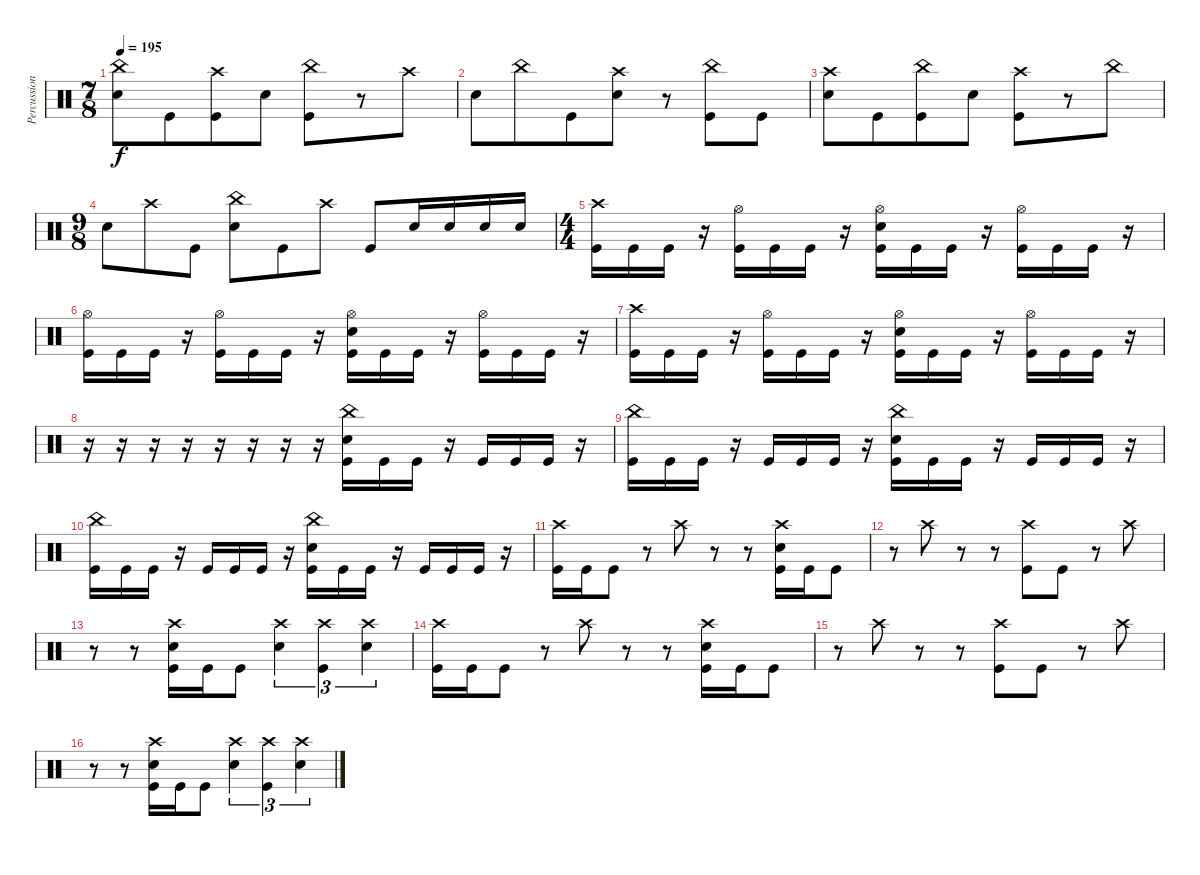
\track ("Percussion" "Percussion") {instrument percussion}
\staff {score}
\articulation defaults
\ts (7 8)
\tempo 195
\clef neutral
\ks c
("China (hit)" "Electric Snare (hit)").8{dy f} "Kick (hit)".8 ("Crash high (hit)" "Kick (hit)").8 "Electric Snare (hit)".8 ("China (hit)" "Kick (hit)").8 r.8 "Crash high (hit)".8 |
"Electric Snare (hit)".8 "China (hit)".8 "Kick (hit)".8 ("Crash high (hit)" "Electric Snare (hit)").8 r.8 ("China (hit)" "Kick (hit)").8 "Kick (hit)".8 |
("Crash high (hit)" "Electric Snare (hit)").8 "Kick (hit)".8 ("China (hit)" "Kick (hit)").8 "Electric Snare (hit)".8 ("Crash high (hit)" "Kick (hit)").8 r.8 "China (hit)".8 |
\ts (9 8)
"Electric Snare (hit)".8 "Crash high (hit)".8 "Kick (hit)".8 ("China (hit)" "Electric Snare (hit)").8 "Kick (hit)".8 "Crash high (hit)".8 "Kick (hit)".8 "Electric Snare (hit)".16 "Electric Snare (hit)".16{beam merge} "Electric Snare (hit)".16 "Electric Snare (hit)".16 |
\ts (4 4)
("Crash high (hit)" "Kick (hit)").16 "Kick (hit)".16 "Kick (hit)".16 r.16 ("Hi-Hat (open)" "Kick (hit)").16 "Kick (hit)".16 "Kick (hit)".16 r.16 ("Hi-Hat (open)" "Electric Snare (hit)" "Kick (hit)").16 "Kick (hit)".16 "Kick (hit)".16 r.16 ("Hi-Hat (open)" "Kick (hit)").16 "Kick (hit)".16 "Kick (hit)".16 r.16 |
("Hi-Hat (open)" "Kick (hit)").16 "Kick (hit)".16 "Kick (hit)".16 r.16 ("Hi-Hat (open)" "Kick (hit)").16 "Kick (hit)".16 "Kick (hit)".16 r.16 ("Hi-Hat (open)" "Electric Snare (hit)" "Kick (hit)").16 "Kick (hit)".16 "Kick (hit)".16 r.16 ("Hi-Hat (open)" "Kick (hit)").16 "Kick (hit)".16 "Kick (hit)".16 r.16 |
("Crash high (hit)" "Kick (hit)").16 "Kick (hit)".16 "Kick (hit)".16 r.16 ("Hi-Hat (open)" "Kick (hit)").16 "Kick (hit)".16 "Kick (hit)".16 r.16 ("Hi-Hat (open)" "Electric Snare (hit)" "Kick (hit)").16 "Kick (hit)".16 "Kick (hit)".16 r.16 ("Hi-Hat (open)" "Kick (hit)").16 "Kick (hit)".16 "Kick (hit)".16 r.16 |
r.16 r.16 r.16 r.16 r.16 r.16 r.16 r.16 ("China (hit)" "Electric Snare (hit)" "Kick (hit)").16 "Kick (hit)".16 "Kick (hit)".16 r.16 "Kick (hit)".16 "Kick (hit)".16 "Kick (hit)".16 r.16 |
("China (hit)" "Kick (hit)").16 "Kick (hit)".16 "Kick (hit)".16 r.16 "Kick (hit)".16 "Kick (hit)".16 "Kick (hit)".16 r.16 ("China (hit)" "Electric Snare (hit)" "Kick (hit)").16 "Kick (hit)".16 "Kick (hit)".16 r.16 "Kick (hit)".16 "Kick (hit)".16 "Kick (hit)".16 r.16 |
("China (hit)" "Kick (hit)").16 "Kick (hit)".16 "Kick (hit)".16 r.16 "Kick (hit)".16 "Kick (hit)".16 "Kick (hit)".16 r.16 ("China (hit)" "Electric Snare (hit)" "Kick (hit)").16 "Kick (hit)".16 "Kick (hit)".16 r.16 "Kick (hit)".16 "Kick (hit)".16 "Kick (hit)".16 r.16 |
("Crash high (hit)" "Kick (hit)").16 "Kick (hit)".16 "Kick (hit)".8 r.8 "Crash high (hit)".8 r.8 r.8 ("Crash high (hit)" "Electric Snare (hit)" "Kick (hit)").16 "Kick (hit)".16 "Kick (hit)".8 |
r.8 "Crash high (hit)".8 r.8 r.8 ("Crash high (hit)" "Kick (hit)").8 "Kick (hit)".8 r.8 "Crash high (hit)".8 |
r.8 r.8 ("Crash high (hit)" "Electric Snare (hit)" "Kick (hit)").16 "Kick (hit)".16 "Kick (hit)".8 ("Crash high (hit)" "Electric Snare (hit)").4{tu (3 2)} ("Crash high (hit)" "Kick (hit)").4{tu (3 2)} ("Crash high (hit)" "Electric Snare (hit)").4{tu (3 2)} |
("Crash high (hit)" "Kick (hit)").16 "Kick (hit)".16 "Kick (hit)".8 r.8 "Crash high (hit)".8 r.8 r.8 ("Crash high (hit)" "Electric Snare (hit)" "Kick (hit)").16 "Kick (hit)".16 "Kick (hit)".8 |
r.8 "Crash high (hit)".8 r.8 r.8 ("Crash high (hit)" "Kick (hit)").8 "Kick (hit)".8 r.8 "Crash high (hit)".8 |
r.8 r.8 ("Crash high (hit)" "Electric Snare (hit)" "Kick (hit)").16 "Kick (hit)".16 "Kick (hit)".8 ("Crash high (hit)" "Electric Snare (hit)").4{tu (3 2)} ("Crash high (hit)" "Kick (hit)").4{tu (3 2)} ("Crash high (hit)" "Electric Snare (hit)").4{tu (3 2)}
